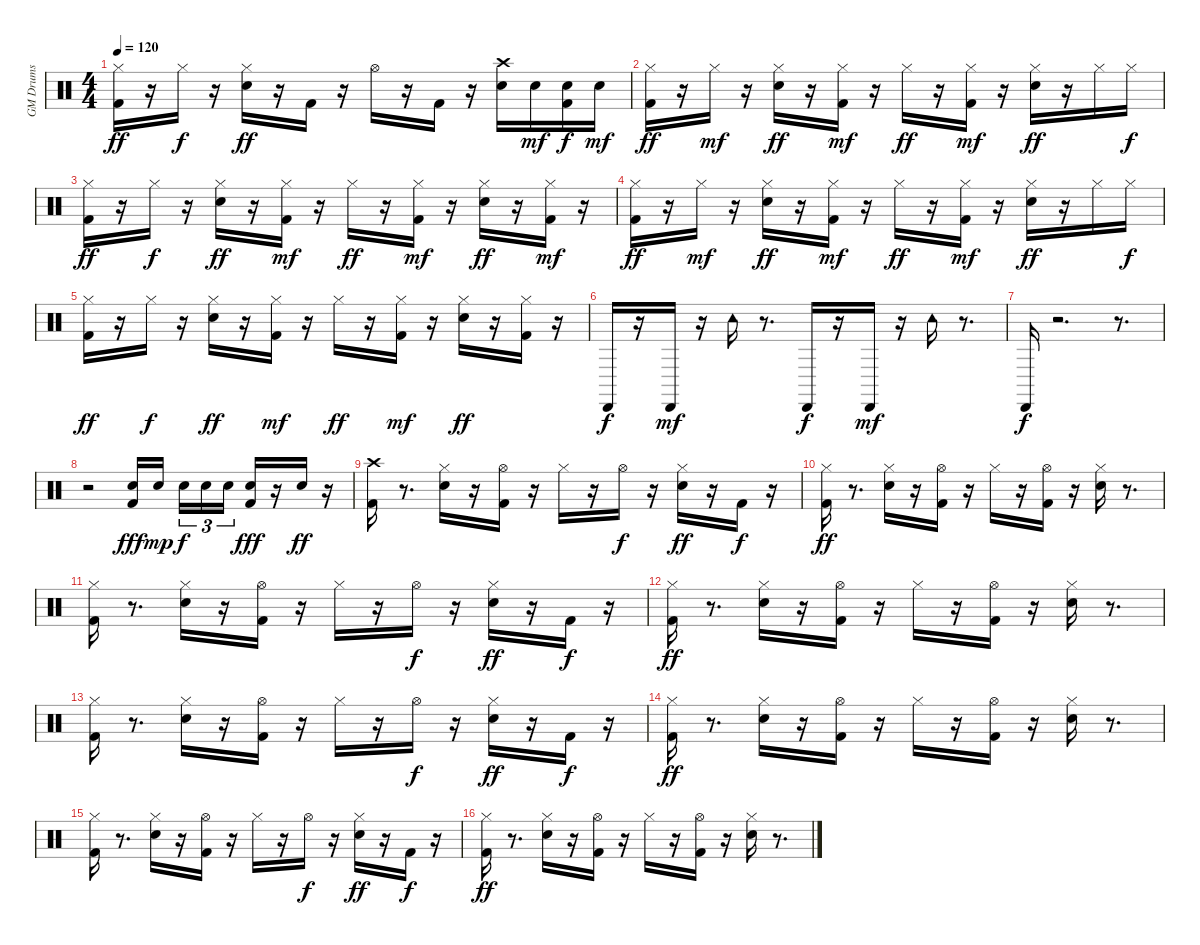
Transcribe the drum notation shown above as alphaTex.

\track ("GM Drums" "GM Drums") {instrument percussion}
\staff {score}
\articulation defaults
\ts (4 4)
\tempo 120
\clef neutral
\ks c
("Kick (hit) 2" "Hi-Hat (closed)").16{dy ff} r.16 "Hi-Hat (closed)".16{dy f} r.16 ("Snare (hit) 2" "Hi-Hat (closed)").16{dy ff} r.16 "Kick (hit) 2".16 r.16 "Hi-Hat (open)".16 r.16 "Kick (hit) 2".16 r.16 ("Electric Snare (hit)" "Crash high (hit)").16 "Snare (hit) 2".16{dy mf} ("Kick (hit) 2" "Snare (hit) 2").16{dy f} "Snare (hit) 2".16{dy mf} |
("Kick (hit) 2" "Hi-Hat (closed)").16{dy ff} r.16 "Hi-Hat (closed)".16{dy mf} r.16 ("Snare (hit) 2" "Hi-Hat (closed)").16{dy ff} r.16 ("Kick (hit) 2" "Hi-Hat (closed)").16{dy mf} r.16 "Hi-Hat (closed)".16{dy ff} r.16 ("Kick (hit) 2" "Hi-Hat (closed)").16{dy mf} r.16 ("Snare (hit) 2" "Hi-Hat (closed)").16{dy ff} r.16 "Hi-Hat (closed)".16 "Hi-Hat (closed)".16{dy f} |
("Kick (hit) 2" "Hi-Hat (closed)").16{dy ff} r.16 "Hi-Hat (closed)".16{dy f} r.16 ("Snare (hit) 2" "Hi-Hat (closed)").16{dy ff} r.16 ("Kick (hit) 2" "Hi-Hat (closed)").16{dy mf} r.16 "Hi-Hat (closed)".16{dy ff} r.16 ("Kick (hit) 2" "Hi-Hat (closed)").16{dy mf} r.16 ("Snare (hit) 2" "Hi-Hat (closed)").16{dy ff} r.16 ("Kick (hit) 2" "Hi-Hat (closed)").16{dy mf} r.16 |
("Kick (hit) 2" "Hi-Hat (closed)").16{dy ff} r.16 "Hi-Hat (closed)".16{dy mf} r.16 ("Snare (hit) 2" "Hi-Hat (closed)").16{dy ff} r.16 ("Kick (hit) 2" "Hi-Hat (closed)").16{dy mf} r.16 "Hi-Hat (closed)".16{dy ff} r.16 ("Kick (hit) 2" "Hi-Hat (closed)").16{dy mf} r.16 ("Snare (hit) 2" "Hi-Hat (closed)").16{dy ff} r.16 "Hi-Hat (closed)".16 "Hi-Hat (closed)".16{dy f} |
("Kick (hit) 2" "Hi-Hat (closed)").16{dy ff} r.16 "Hi-Hat (closed)".16{dy f} r.16 ("Snare (hit) 2" "Hi-Hat (closed)").16{dy ff} r.16 ("Kick (hit) 2" "Hi-Hat (closed)").16{dy mf} r.16 "Hi-Hat (closed)".16{dy ff} r.16 ("Kick (hit) 2" "Hi-Hat (closed)").16{dy mf} r.16 ("Snare (hit) 2" "Hi-Hat (closed)").16{dy ff} r.16 ("Kick (hit) 2" "Hi-Hat (closed)").16 r.16 |
"Cabasa (hit)".16{dy f} r.16 "Cabasa (hit)".16{dy mf} r.16 "Tambourine (hit)".16 r.8{d} "Cabasa (hit)".16{dy f} r.16 "Cabasa (hit)".16{dy mf} r.16 "Tambourine (hit)".16 r.8{d} |
"Cabasa (hit)".16{dy f} r.2{d} r.8{d} |
r.2 ("Kick (hit) 2" "Snare (hit) 2").16{dy fff} "Snare (hit) 2".16{dy mp beam splitsecondary} "Snare (hit) 2".16{tu (3 2) dy f} "Snare (hit) 2".16{tu (3 2)} "Snare (hit) 2".16{tu (3 2)} ("Kick (hit) 2" "Snare (hit) 2").16{dy fff} r.16 "Snare (hit) 2".16{dy ff} r.16 |
("Kick (hit) 2" "Crash high (hit)").16 r.8{d} ("Snare (hit) 2" "Hi-Hat (closed)").16 r.16 ("Kick (hit) 2" "Hi-Hat (open)").16 r.16 "Hi-Hat (closed)".16 r.16 "Hi-Hat (open)".16{dy f} r.16 ("Snare (hit) 2" "Hi-Hat (closed)").16{dy ff} r.16 "Kick (hit) 2".16{dy f} r.16 |
("Kick (hit) 2" "Hi-Hat (closed)").16{dy ff} r.8{d} ("Snare (hit) 2" "Hi-Hat (closed)").16 r.16 ("Kick (hit) 2" "Hi-Hat (open)").16 r.16 "Hi-Hat (closed)".16 r.16 ("Kick (hit) 2" "Hi-Hat (open)").16 r.16 ("Snare (hit) 2" "Hi-Hat (closed)").16 r.8{d} |
("Kick (hit) 2" "Hi-Hat (closed)").16 r.8{d} ("Snare (hit) 2" "Hi-Hat (closed)").16 r.16 ("Kick (hit) 2" "Hi-Hat (open)").16 r.16 "Hi-Hat (closed)".16 r.16 "Hi-Hat (open)".16{dy f} r.16 ("Snare (hit) 2" "Hi-Hat (closed)").16{dy ff} r.16 "Kick (hit) 2".16{dy f} r.16 |
("Kick (hit) 2" "Hi-Hat (closed)").16{dy ff} r.8{d} ("Snare (hit) 2" "Hi-Hat (closed)").16 r.16 ("Kick (hit) 2" "Hi-Hat (open)").16 r.16 "Hi-Hat (closed)".16 r.16 ("Kick (hit) 2" "Hi-Hat (open)").16 r.16 ("Snare (hit) 2" "Hi-Hat (closed)").16 r.8{d} |
("Kick (hit) 2" "Hi-Hat (closed)").16 r.8{d} ("Snare (hit) 2" "Hi-Hat (closed)").16 r.16 ("Kick (hit) 2" "Hi-Hat (open)").16 r.16 "Hi-Hat (closed)".16 r.16 "Hi-Hat (open)".16{dy f} r.16 ("Snare (hit) 2" "Hi-Hat (closed)").16{dy ff} r.16 "Kick (hit) 2".16{dy f} r.16 |
("Kick (hit) 2" "Hi-Hat (closed)").16{dy ff} r.8{d} ("Snare (hit) 2" "Hi-Hat (closed)").16 r.16 ("Kick (hit) 2" "Hi-Hat (open)").16 r.16 "Hi-Hat (closed)".16 r.16 ("Kick (hit) 2" "Hi-Hat (open)").16 r.16 ("Snare (hit) 2" "Hi-Hat (closed)").16 r.8{d} |
("Kick (hit) 2" "Hi-Hat (closed)").16 r.8{d} ("Snare (hit) 2" "Hi-Hat (closed)").16 r.16 ("Kick (hit) 2" "Hi-Hat (open)").16 r.16 "Hi-Hat (closed)".16 r.16 "Hi-Hat (open)".16{dy f} r.16 ("Snare (hit) 2" "Hi-Hat (closed)").16{dy ff} r.16 "Kick (hit) 2".16{dy f} r.16 |
("Kick (hit) 2" "Hi-Hat (closed)").16{dy ff} r.8{d} ("Snare (hit) 2" "Hi-Hat (closed)").16 r.16 ("Kick (hit) 2" "Hi-Hat (open)").16 r.16 "Hi-Hat (closed)".16 r.16 ("Kick (hit) 2" "Hi-Hat (open)").16 r.16 ("Snare (hit) 2" "Hi-Hat (closed)").16 r.8{d}
